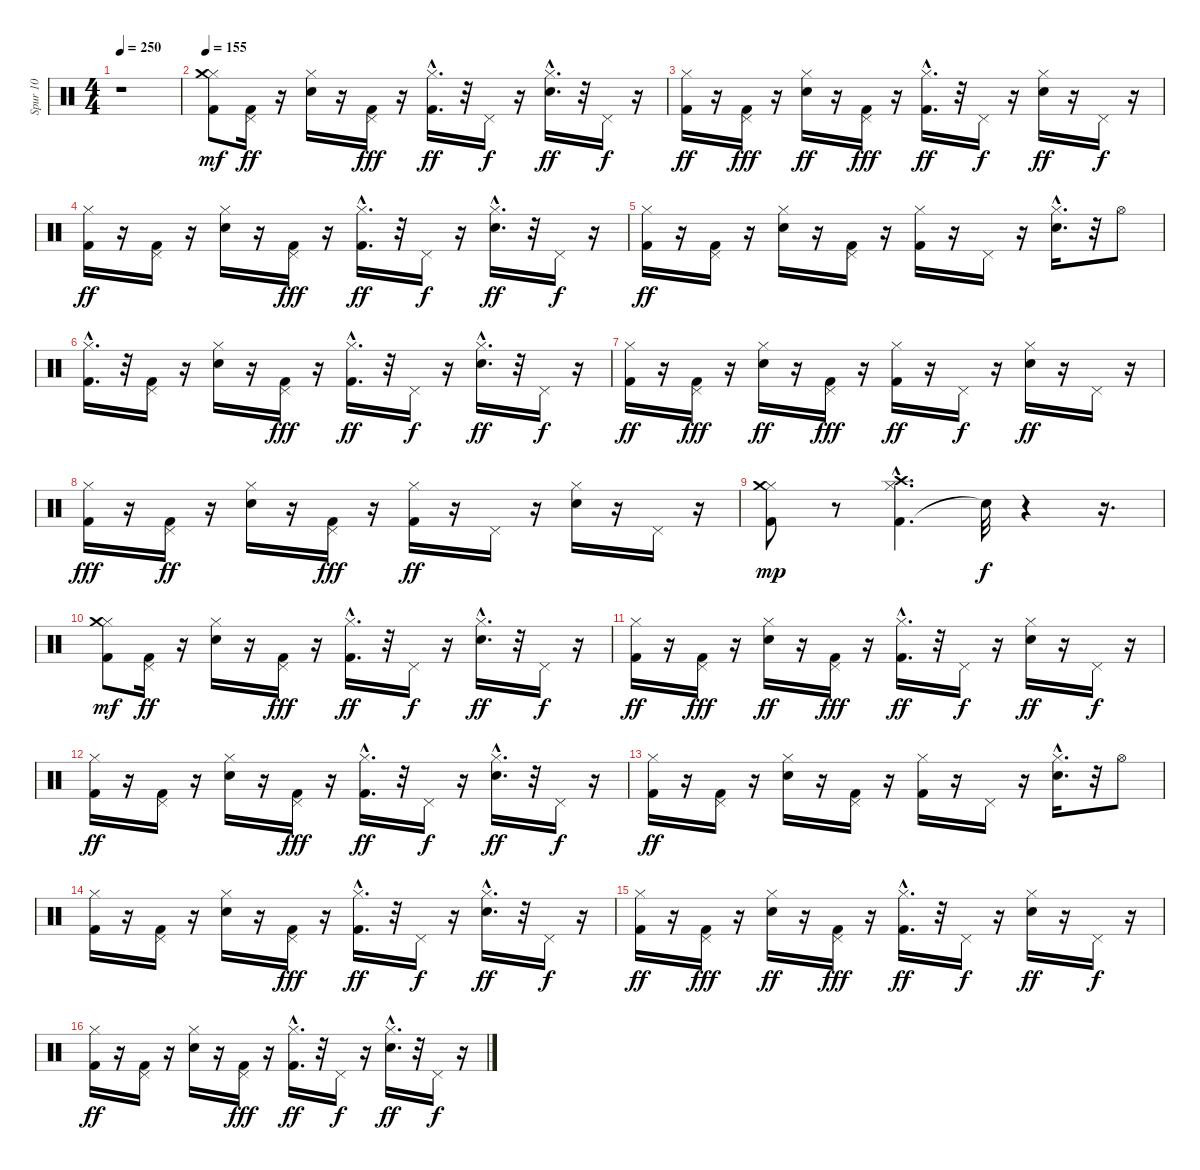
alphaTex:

\track ("Spur 10" "Spur 10") {instrument percussion}
\staff {score}
\articulation defaults
\ts (4 4)
\tempo 250
\clef neutral
\ks c
r.1{dy mf} |
\tempo 155
("Kick (hit) 2" "Hi-Hat (closed)" "Crash medium (hit)").8 ("Kick (hit) 2" "Pedal Hi-Hat (hit)").16{dy ff} r.16 ("Snare (hit) 2" "Hi-Hat (closed)").16 r.16 ("Kick (hit) 2" "Pedal Hi-Hat (hit)").16{dy fff} r.16 ("Kick (hit) 2"{hac} "Hi-Hat (closed)").16{d dy ff} r.32 "Pedal Hi-Hat (hit)".16{dy f} r.16 ("Snare (hit) 2"{hac} "Hi-Hat (closed)").16{d dy ff} r.32 "Pedal Hi-Hat (hit)".16{dy f} r.16 |
("Kick (hit) 2" "Hi-Hat (closed)").16{dy ff} r.16 ("Kick (hit) 2" "Pedal Hi-Hat (hit)").16{dy fff} r.16 ("Snare (hit) 2" "Hi-Hat (closed)").16{dy ff} r.16 ("Kick (hit) 2" "Pedal Hi-Hat (hit)").16{dy fff} r.16 ("Kick (hit) 2"{hac} "Hi-Hat (closed)").16{d dy ff} r.32 "Pedal Hi-Hat (hit)".16{dy f} r.16 ("Snare (hit) 2" "Hi-Hat (closed)").16{dy ff} r.16 "Pedal Hi-Hat (hit)".16{dy f} r.16 |
("Kick (hit) 2" "Hi-Hat (closed)").16{dy ff} r.16 ("Kick (hit) 2" "Pedal Hi-Hat (hit)").16 r.16 ("Snare (hit) 2" "Hi-Hat (closed)").16 r.16 ("Kick (hit) 2" "Pedal Hi-Hat (hit)").16{dy fff} r.16 ("Kick (hit) 2"{hac} "Hi-Hat (closed)").16{d dy ff} r.32 "Pedal Hi-Hat (hit)".16{dy f} r.16 ("Snare (hit) 2"{hac} "Hi-Hat (closed)").16{d dy ff} r.32 "Pedal Hi-Hat (hit)".16{dy f} r.16 |
("Kick (hit) 2" "Hi-Hat (closed)").16{dy ff} r.16 ("Kick (hit) 2" "Pedal Hi-Hat (hit)").16 r.16 ("Snare (hit) 2" "Hi-Hat (closed)").16 r.16 ("Kick (hit) 2" "Pedal Hi-Hat (hit)").16 r.16 ("Kick (hit) 2" "Hi-Hat (closed)").16 r.16 "Pedal Hi-Hat (hit)".16 r.16 ("Snare (hit) 2"{hac} "Hi-Hat (closed)").16{d} r.32 "Hi-Hat (open)".8 |
("Kick (hit) 2" "Hi-Hat (closed)"{hac}).16{d} r.32 ("Kick (hit) 2" "Pedal Hi-Hat (hit)").16 r.16 ("Snare (hit) 2" "Hi-Hat (closed)").16 r.16 ("Kick (hit) 2" "Pedal Hi-Hat (hit)").16{dy fff} r.16 ("Kick (hit) 2"{hac} "Hi-Hat (closed)").16{d dy ff} r.32 "Pedal Hi-Hat (hit)".16{dy f} r.16 ("Snare (hit) 2"{hac} "Hi-Hat (closed)").16{d dy ff} r.32 "Pedal Hi-Hat (hit)".16{dy f} r.16 |
("Kick (hit) 2" "Hi-Hat (closed)").16{dy ff} r.16 ("Kick (hit) 2" "Pedal Hi-Hat (hit)").16{dy fff} r.16 ("Snare (hit) 2" "Hi-Hat (closed)").16{dy ff} r.16 ("Kick (hit) 2" "Pedal Hi-Hat (hit)").16{dy fff} r.16 ("Kick (hit) 2" "Hi-Hat (closed)").16{dy ff} r.16 "Pedal Hi-Hat (hit)".16{dy f} r.16 ("Snare (hit) 2" "Hi-Hat (closed)").16{dy ff} r.16 "Pedal Hi-Hat (hit)".16 r.16 |
("Kick (hit) 2" "Hi-Hat (closed)").16{dy fff} r.16 ("Kick (hit) 2" "Pedal Hi-Hat (hit)").16{dy ff} r.16 ("Snare (hit) 2" "Hi-Hat (closed)").16 r.16 ("Kick (hit) 2" "Pedal Hi-Hat (hit)").16{dy fff} r.16 ("Kick (hit) 2" "Hi-Hat (closed)").16{dy ff} r.16 "Pedal Hi-Hat (hit)".16 r.16 ("Snare (hit) 2" "Hi-Hat (closed)").16 r.16 "Pedal Hi-Hat (hit)".16 r.16 |
("Kick (hit) 2" "Hi-Hat (closed)" "Crash medium (hit)").8{dy mp} r.8 ("Kick (hit) 2"{hac} "Hi-Hat (closed)"{hac} "Crash high (hit)"{hac}).4{d} "Snare (hit)"{t}.32{dy f} r.4 r.16{d} |
("Kick (hit) 2" "Hi-Hat (closed)" "Crash medium (hit)").8{dy mf} ("Kick (hit) 2" "Pedal Hi-Hat (hit)").16{dy ff} r.16 ("Snare (hit) 2" "Hi-Hat (closed)").16 r.16 ("Kick (hit) 2" "Pedal Hi-Hat (hit)").16{dy fff} r.16 ("Kick (hit) 2"{hac} "Hi-Hat (closed)").16{d dy ff} r.32 "Pedal Hi-Hat (hit)".16{dy f} r.16 ("Snare (hit) 2"{hac} "Hi-Hat (closed)").16{d dy ff} r.32 "Pedal Hi-Hat (hit)".16{dy f} r.16 |
("Kick (hit) 2" "Hi-Hat (closed)").16{dy ff} r.16 ("Kick (hit) 2" "Pedal Hi-Hat (hit)").16{dy fff} r.16 ("Snare (hit) 2" "Hi-Hat (closed)").16{dy ff} r.16 ("Kick (hit) 2" "Pedal Hi-Hat (hit)").16{dy fff} r.16 ("Kick (hit) 2"{hac} "Hi-Hat (closed)").16{d dy ff} r.32 "Pedal Hi-Hat (hit)".16{dy f} r.16 ("Snare (hit) 2" "Hi-Hat (closed)").16{dy ff} r.16 "Pedal Hi-Hat (hit)".16{dy f} r.16 |
("Kick (hit) 2" "Hi-Hat (closed)").16{dy ff} r.16 ("Kick (hit) 2" "Pedal Hi-Hat (hit)").16 r.16 ("Snare (hit) 2" "Hi-Hat (closed)").16 r.16 ("Kick (hit) 2" "Pedal Hi-Hat (hit)").16{dy fff} r.16 ("Kick (hit) 2"{hac} "Hi-Hat (closed)").16{d dy ff} r.32 "Pedal Hi-Hat (hit)".16{dy f} r.16 ("Snare (hit) 2"{hac} "Hi-Hat (closed)").16{d dy ff} r.32 "Pedal Hi-Hat (hit)".16{dy f} r.16 |
("Kick (hit) 2" "Hi-Hat (closed)").16{dy ff} r.16 ("Kick (hit) 2" "Pedal Hi-Hat (hit)").16 r.16 ("Snare (hit) 2" "Hi-Hat (closed)").16 r.16 ("Kick (hit) 2" "Pedal Hi-Hat (hit)").16 r.16 ("Kick (hit) 2" "Hi-Hat (closed)").16 r.16 "Pedal Hi-Hat (hit)".16 r.16 ("Snare (hit) 2"{hac} "Hi-Hat (closed)").16{d} r.32 "Hi-Hat (open)".8 |
("Kick (hit) 2" "Hi-Hat (closed)").16 r.16 ("Kick (hit) 2" "Pedal Hi-Hat (hit)").16 r.16 ("Snare (hit) 2" "Hi-Hat (closed)").16 r.16 ("Kick (hit) 2" "Pedal Hi-Hat (hit)").16{dy fff} r.16 ("Kick (hit) 2"{hac} "Hi-Hat (closed)").16{d dy ff} r.32 "Pedal Hi-Hat (hit)".16{dy f} r.16 ("Snare (hit) 2"{hac} "Hi-Hat (closed)").16{d dy ff} r.32 "Pedal Hi-Hat (hit)".16{dy f} r.16 |
("Kick (hit) 2" "Hi-Hat (closed)").16{dy ff} r.16 ("Kick (hit) 2" "Pedal Hi-Hat (hit)").16{dy fff} r.16 ("Snare (hit) 2" "Hi-Hat (closed)").16{dy ff} r.16 ("Kick (hit) 2" "Pedal Hi-Hat (hit)").16{dy fff} r.16 ("Kick (hit) 2"{hac} "Hi-Hat (closed)").16{d dy ff} r.32 "Pedal Hi-Hat (hit)".16{dy f} r.16 ("Snare (hit) 2" "Hi-Hat (closed)").16{dy ff} r.16 "Pedal Hi-Hat (hit)".16{dy f} r.16 |
("Kick (hit) 2" "Hi-Hat (closed)").16{dy ff} r.16 ("Kick (hit) 2" "Pedal Hi-Hat (hit)").16 r.16 ("Snare (hit) 2" "Hi-Hat (closed)").16 r.16 ("Kick (hit) 2" "Pedal Hi-Hat (hit)").16{dy fff} r.16 ("Kick (hit) 2"{hac} "Hi-Hat (closed)").16{d dy ff} r.32 "Pedal Hi-Hat (hit)".16{dy f} r.16 ("Snare (hit) 2"{hac} "Hi-Hat (closed)").16{d dy ff} r.32 "Pedal Hi-Hat (hit)".16{dy f} r.16
